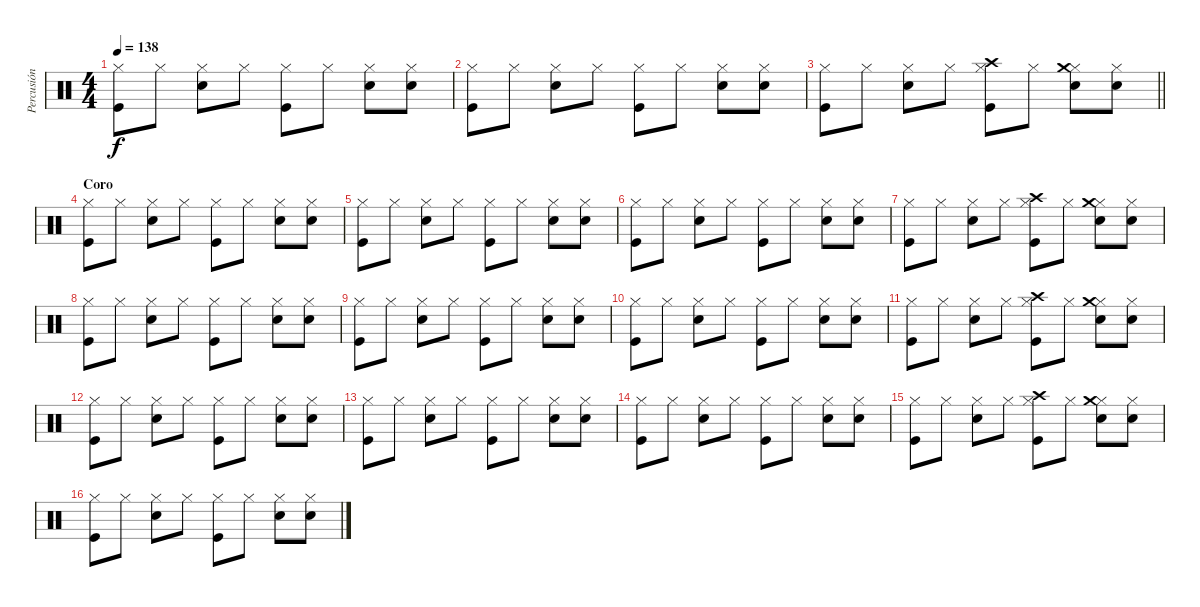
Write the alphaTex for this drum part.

\track ("Percusión" "Percusión") {instrument percussion}
\staff {score}
\articulation defaults
\ts (4 4)
\tempo 138
\clef neutral
\ks c
("Hi-Hat (closed)" "Kick (hit)").8{dy f} "Hi-Hat (closed)".8 ("Hi-Hat (closed)" "Snare (hit) 2").8 "Hi-Hat (closed)".8 ("Hi-Hat (closed)" "Kick (hit)").8 "Hi-Hat (closed)".8 ("Hi-Hat (closed)" "Snare (hit) 2").8 ("Hi-Hat (closed)" "Snare (hit) 2").8 |
("Hi-Hat (closed)" "Kick (hit)").8 "Hi-Hat (closed)".8 ("Hi-Hat (closed)" "Snare (hit) 2").8 "Hi-Hat (closed)".8 ("Hi-Hat (closed)" "Kick (hit)").8 "Hi-Hat (closed)".8 ("Hi-Hat (closed)" "Snare (hit) 2").8 ("Hi-Hat (closed)" "Snare (hit) 2").8 |
\barLineRight lightlight
("Hi-Hat (closed)" "Kick (hit)").8 "Hi-Hat (closed)".8 ("Hi-Hat (closed)" "Snare (hit) 2").8 "Hi-Hat (closed)".8 ("Hi-Hat (closed)" "Kick (hit)" "Crash high (hit)").8 "Hi-Hat (closed)".8 ("Hi-Hat (closed)" "Snare (hit) 2" "Crash medium (hit)").8 ("Hi-Hat (closed)" "Snare (hit) 2").8 |
\section ("" "Coro")
("Hi-Hat (closed)" "Kick (hit)").8 "Hi-Hat (closed)".8 ("Hi-Hat (closed)" "Snare (hit) 2").8 "Hi-Hat (closed)".8 ("Hi-Hat (closed)" "Kick (hit)").8 "Hi-Hat (closed)".8 ("Hi-Hat (closed)" "Snare (hit) 2").8 ("Hi-Hat (closed)" "Snare (hit) 2").8 |
("Hi-Hat (closed)" "Kick (hit)").8 "Hi-Hat (closed)".8 ("Hi-Hat (closed)" "Snare (hit) 2").8 "Hi-Hat (closed)".8 ("Hi-Hat (closed)" "Kick (hit)").8 "Hi-Hat (closed)".8 ("Hi-Hat (closed)" "Snare (hit) 2").8 ("Hi-Hat (closed)" "Snare (hit) 2").8 |
("Hi-Hat (closed)" "Kick (hit)").8 "Hi-Hat (closed)".8 ("Hi-Hat (closed)" "Snare (hit) 2").8 "Hi-Hat (closed)".8 ("Hi-Hat (closed)" "Kick (hit)").8 "Hi-Hat (closed)".8 ("Hi-Hat (closed)" "Snare (hit) 2").8 ("Hi-Hat (closed)" "Snare (hit) 2").8 |
("Hi-Hat (closed)" "Kick (hit)").8 "Hi-Hat (closed)".8 ("Hi-Hat (closed)" "Snare (hit) 2").8 "Hi-Hat (closed)".8 ("Hi-Hat (closed)" "Kick (hit)" "Crash high (hit)").8 "Hi-Hat (closed)".8 ("Hi-Hat (closed)" "Snare (hit) 2" "Crash medium (hit)").8 ("Hi-Hat (closed)" "Snare (hit) 2").8 |
("Hi-Hat (closed)" "Kick (hit)").8 "Hi-Hat (closed)".8 ("Hi-Hat (closed)" "Snare (hit) 2").8 "Hi-Hat (closed)".8 ("Hi-Hat (closed)" "Kick (hit)").8 "Hi-Hat (closed)".8 ("Hi-Hat (closed)" "Snare (hit) 2").8 ("Hi-Hat (closed)" "Snare (hit) 2").8 |
("Hi-Hat (closed)" "Kick (hit)").8 "Hi-Hat (closed)".8 ("Hi-Hat (closed)" "Snare (hit) 2").8 "Hi-Hat (closed)".8 ("Hi-Hat (closed)" "Kick (hit)").8 "Hi-Hat (closed)".8 ("Hi-Hat (closed)" "Snare (hit) 2").8 ("Hi-Hat (closed)" "Snare (hit) 2").8 |
("Hi-Hat (closed)" "Kick (hit)").8 "Hi-Hat (closed)".8 ("Hi-Hat (closed)" "Snare (hit) 2").8 "Hi-Hat (closed)".8 ("Hi-Hat (closed)" "Kick (hit)").8 "Hi-Hat (closed)".8 ("Hi-Hat (closed)" "Snare (hit) 2").8 ("Hi-Hat (closed)" "Snare (hit) 2").8 |
("Hi-Hat (closed)" "Kick (hit)").8 "Hi-Hat (closed)".8 ("Hi-Hat (closed)" "Snare (hit) 2").8 "Hi-Hat (closed)".8 ("Hi-Hat (closed)" "Kick (hit)" "Crash high (hit)").8 "Hi-Hat (closed)".8 ("Hi-Hat (closed)" "Snare (hit) 2" "Crash medium (hit)").8 ("Hi-Hat (closed)" "Snare (hit) 2").8 |
("Hi-Hat (closed)" "Kick (hit)").8 "Hi-Hat (closed)".8 ("Hi-Hat (closed)" "Snare (hit) 2").8 "Hi-Hat (closed)".8 ("Hi-Hat (closed)" "Kick (hit)").8 "Hi-Hat (closed)".8 ("Hi-Hat (closed)" "Snare (hit) 2").8 ("Hi-Hat (closed)" "Snare (hit) 2").8 |
("Hi-Hat (closed)" "Kick (hit)").8 "Hi-Hat (closed)".8 ("Hi-Hat (closed)" "Snare (hit) 2").8 "Hi-Hat (closed)".8 ("Hi-Hat (closed)" "Kick (hit)").8 "Hi-Hat (closed)".8 ("Hi-Hat (closed)" "Snare (hit) 2").8 ("Hi-Hat (closed)" "Snare (hit) 2").8 |
("Hi-Hat (closed)" "Kick (hit)").8 "Hi-Hat (closed)".8 ("Hi-Hat (closed)" "Snare (hit) 2").8 "Hi-Hat (closed)".8 ("Hi-Hat (closed)" "Kick (hit)").8 "Hi-Hat (closed)".8 ("Hi-Hat (closed)" "Snare (hit) 2").8 ("Hi-Hat (closed)" "Snare (hit) 2").8 |
("Hi-Hat (closed)" "Kick (hit)").8 "Hi-Hat (closed)".8 ("Hi-Hat (closed)" "Snare (hit) 2").8 "Hi-Hat (closed)".8 ("Hi-Hat (closed)" "Kick (hit)" "Crash high (hit)").8 "Hi-Hat (closed)".8 ("Hi-Hat (closed)" "Snare (hit) 2" "Crash medium (hit)").8 ("Hi-Hat (closed)" "Snare (hit) 2").8 |
("Hi-Hat (closed)" "Kick (hit)").8 "Hi-Hat (closed)".8 ("Hi-Hat (closed)" "Snare (hit) 2").8 "Hi-Hat (closed)".8 ("Hi-Hat (closed)" "Kick (hit)").8 "Hi-Hat (closed)".8 ("Hi-Hat (closed)" "Snare (hit) 2").8 ("Hi-Hat (closed)" "Snare (hit) 2").8
